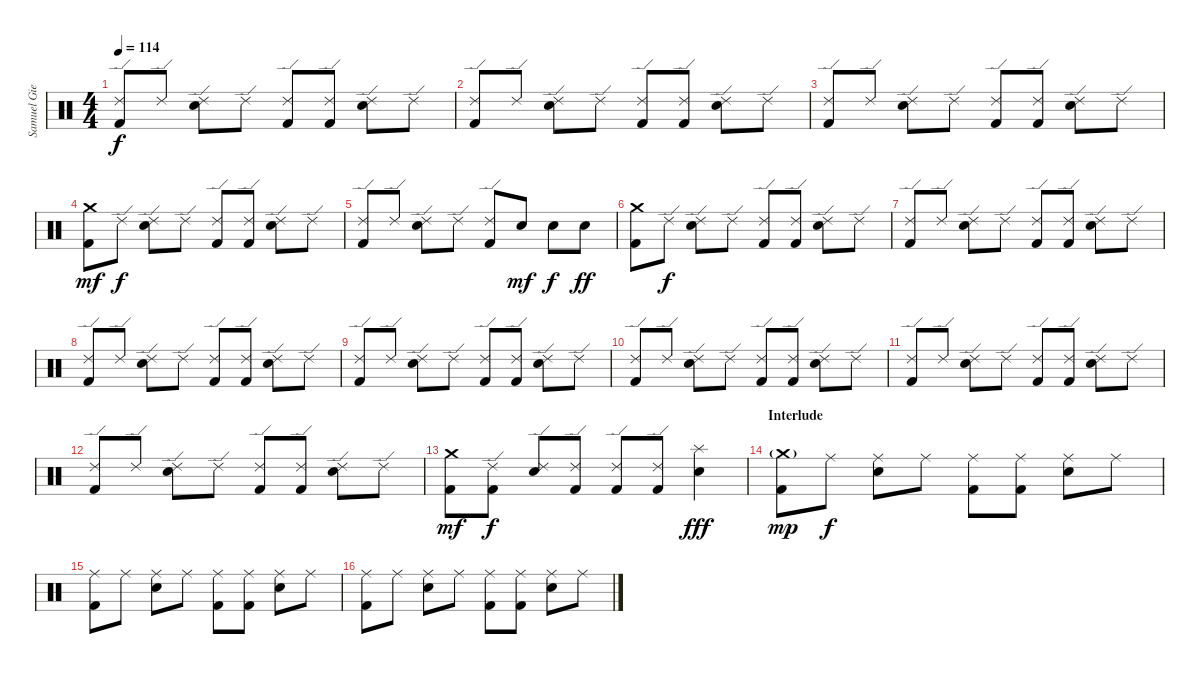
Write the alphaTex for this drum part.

\track ("Samuel Giers - Drum" "Samuel Gie") {instrument percussion}
\staff {score}
\articulation defaults
\ts (4 4)
\tempo 114
\clef neutral
\ks c
("Ride (edge) 2" "Kick (hit) 2").8{dy f} "Ride (edge) 2".8 ("Ride (edge) 2" "Snare (hit) 2").8 "Ride (edge) 2".8 ("Ride (edge) 2" "Kick (hit) 2").8 ("Ride (edge) 2" "Kick (hit) 2").8 ("Ride (edge) 2" "Snare (hit) 2").8 "Ride (edge) 2".8 |
("Ride (edge) 2" "Kick (hit) 2").8 "Ride (edge) 2".8 ("Ride (edge) 2" "Snare (hit) 2").8 "Ride (edge) 2".8 ("Ride (edge) 2" "Kick (hit) 2").8 ("Ride (edge) 2" "Kick (hit) 2").8 ("Ride (edge) 2" "Snare (hit) 2").8 "Ride (edge) 2".8 |
("Ride (edge) 2" "Kick (hit) 2").8 "Ride (edge) 2".8 ("Ride (edge) 2" "Snare (hit) 2").8 "Ride (edge) 2".8 ("Ride (edge) 2" "Kick (hit) 2").8 ("Ride (edge) 2" "Kick (hit) 2").8 ("Ride (edge) 2" "Snare (hit) 2").8 "Ride (edge) 2".8 |
("Crash medium (hit)" "Kick (hit) 2").8{dy mf} "Ride (edge) 2".8{dy f} ("Ride (edge) 2" "Snare (hit) 2").8 "Ride (edge) 2".8 ("Ride (edge) 2" "Kick (hit) 2").8 ("Ride (edge) 2" "Kick (hit) 2").8 ("Ride (edge) 2" "Snare (hit) 2").8 "Ride (edge) 2".8 |
("Ride (edge) 2" "Kick (hit) 2").8 "Ride (edge) 2".8 ("Ride (edge) 2" "Snare (hit) 2").8 "Ride (edge) 2".8 ("Ride (edge) 2" "Kick (hit) 2").8 "Snare (hit) 2".8{dy mf} "Snare (hit) 2".8{dy f} "Snare (hit) 2".8{dy ff} |
("Crash medium (hit)" "Kick (hit) 2").8 "Ride (edge) 2".8{dy f} ("Ride (edge) 2" "Snare (hit) 2").8 "Ride (edge) 2".8 ("Ride (edge) 2" "Kick (hit) 2").8 ("Ride (edge) 2" "Kick (hit) 2").8 ("Ride (edge) 2" "Snare (hit) 2").8 "Ride (edge) 2".8 |
("Ride (edge) 2" "Kick (hit) 2").8 "Ride (edge) 2".8 ("Ride (edge) 2" "Snare (hit) 2").8 "Ride (edge) 2".8 ("Ride (edge) 2" "Kick (hit) 2").8 ("Ride (edge) 2" "Kick (hit) 2").8 ("Ride (edge) 2" "Snare (hit) 2").8 "Ride (edge) 2".8 |
("Ride (edge) 2" "Kick (hit) 2").8 "Ride (edge) 2".8 ("Ride (edge) 2" "Snare (hit) 2").8 "Ride (edge) 2".8 ("Ride (edge) 2" "Kick (hit) 2").8 ("Ride (edge) 2" "Kick (hit) 2").8 ("Ride (edge) 2" "Snare (hit) 2").8 "Ride (edge) 2".8 |
("Ride (edge) 2" "Kick (hit) 2").8 "Ride (edge) 2".8 ("Ride (edge) 2" "Snare (hit) 2").8 "Ride (edge) 2".8 ("Ride (edge) 2" "Kick (hit) 2").8 ("Ride (edge) 2" "Kick (hit) 2").8 ("Ride (edge) 2" "Snare (hit) 2").8 "Ride (edge) 2".8 |
("Ride (edge) 2" "Kick (hit) 2").8 "Ride (edge) 2".8 ("Ride (edge) 2" "Snare (hit) 2").8 "Ride (edge) 2".8 ("Ride (edge) 2" "Kick (hit) 2").8 ("Ride (edge) 2" "Kick (hit) 2").8 ("Ride (edge) 2" "Snare (hit) 2").8 "Ride (edge) 2".8 |
("Ride (edge) 2" "Kick (hit) 2").8 "Ride (edge) 2".8 ("Ride (edge) 2" "Snare (hit) 2").8 "Ride (edge) 2".8 ("Ride (edge) 2" "Kick (hit) 2").8 ("Ride (edge) 2" "Kick (hit) 2").8 ("Ride (edge) 2" "Snare (hit) 2").8 "Ride (edge) 2".8 |
("Ride (edge) 2" "Kick (hit) 2").8 "Ride (edge) 2".8 ("Ride (edge) 2" "Snare (hit) 2").8 "Ride (edge) 2".8 ("Ride (edge) 2" "Kick (hit) 2").8 ("Ride (edge) 2" "Kick (hit) 2").8 ("Ride (edge) 2" "Snare (hit) 2").8 "Ride (edge) 2".8 |
("Crash medium (hit)" "Kick (hit) 2").8{dy mf} ("Ride (edge) 2" "Kick (hit) 2").8{dy f} ("Ride (edge) 2" "Snare (hit) 2").8 ("Ride (edge) 2" "Kick (hit) 2").8 ("Ride (edge) 2" "Kick (hit) 2").8 ("Ride (edge) 2" "Kick (hit) 2").8 ("Splash (hit)" "Snare (hit) 2").4{dy fff} |
\section ("" "Interlude")
("Crash medium (hit)"{g} "Kick (hit) 2").8{dy mp} "Ride (middle)".8{dy f} ("Ride (middle)" "Snare (hit) 2").8 "Ride (middle)".8 ("Ride (middle)" "Kick (hit) 2").8 ("Ride (middle)" "Kick (hit) 2").8 ("Ride (middle)" "Snare (hit) 2").8 "Ride (middle)".8 |
("Ride (middle)" "Kick (hit) 2").8 "Ride (middle)".8 ("Ride (middle)" "Snare (hit) 2").8 "Ride (middle)".8 ("Ride (middle)" "Kick (hit) 2").8 ("Ride (middle)" "Kick (hit) 2").8 ("Ride (middle)" "Snare (hit) 2").8 "Ride (middle)".8 |
("Ride (middle)" "Kick (hit) 2").8 "Ride (middle)".8 ("Ride (middle)" "Snare (hit) 2").8 "Ride (middle)".8 ("Ride (middle)" "Kick (hit) 2").8 ("Ride (middle)" "Kick (hit) 2").8 ("Ride (middle)" "Snare (hit) 2").8 "Ride (middle)".8
